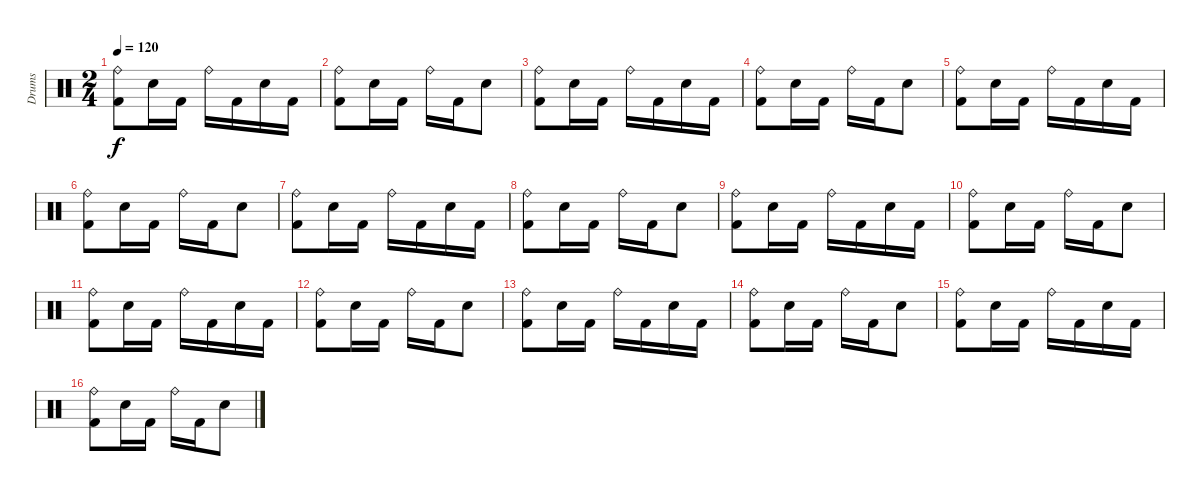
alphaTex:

\track ("Drums" "Drums") {instrument percussion}
\staff {score}
\articulation defaults
\ts (2 4)
\tempo 120
\clef neutral
\ks aminor
("Kick (hit) 2" "Ride (bell)").8{dy f} "Electric Snare (hit)".16 "Kick (hit) 2".16 "Ride (bell)".16 "Kick (hit) 2".16 "Electric Snare (hit)".16 "Kick (hit) 2".16 |
("Kick (hit) 2" "Ride (bell)").8 "Electric Snare (hit)".16 "Kick (hit) 2".16 "Ride (bell)".16 "Kick (hit) 2".16 "Electric Snare (hit)".8 |
("Kick (hit) 2" "Ride (bell)").8 "Electric Snare (hit)".16 "Kick (hit) 2".16 "Ride (bell)".16 "Kick (hit) 2".16 "Electric Snare (hit)".16 "Kick (hit) 2".16 |
("Kick (hit) 2" "Ride (bell)").8 "Electric Snare (hit)".16 "Kick (hit) 2".16 "Ride (bell)".16 "Kick (hit) 2".16 "Electric Snare (hit)".8 |
("Kick (hit) 2" "Ride (bell)").8 "Electric Snare (hit)".16 "Kick (hit) 2".16 "Ride (bell)".16 "Kick (hit) 2".16 "Electric Snare (hit)".16 "Kick (hit) 2".16 |
("Kick (hit) 2" "Ride (bell)").8 "Electric Snare (hit)".16 "Kick (hit) 2".16 "Ride (bell)".16 "Kick (hit) 2".16 "Electric Snare (hit)".8 |
("Kick (hit) 2" "Ride (bell)").8 "Electric Snare (hit)".16 "Kick (hit) 2".16 "Ride (bell)".16 "Kick (hit) 2".16 "Electric Snare (hit)".16 "Kick (hit) 2".16 |
("Kick (hit) 2" "Ride (bell)").8 "Electric Snare (hit)".16 "Kick (hit) 2".16 "Ride (bell)".16 "Kick (hit) 2".16 "Electric Snare (hit)".8 |
("Kick (hit) 2" "Ride (bell)").8 "Electric Snare (hit)".16 "Kick (hit) 2".16 "Ride (bell)".16 "Kick (hit) 2".16 "Electric Snare (hit)".16 "Kick (hit) 2".16 |
("Kick (hit) 2" "Ride (bell)").8 "Electric Snare (hit)".16 "Kick (hit) 2".16 "Ride (bell)".16 "Kick (hit) 2".16 "Electric Snare (hit)".8 |
("Kick (hit) 2" "Ride (bell)").8 "Electric Snare (hit)".16 "Kick (hit) 2".16 "Ride (bell)".16 "Kick (hit) 2".16 "Electric Snare (hit)".16 "Kick (hit) 2".16 |
("Kick (hit) 2" "Ride (bell)").8 "Electric Snare (hit)".16 "Kick (hit) 2".16 "Ride (bell)".16 "Kick (hit) 2".16 "Electric Snare (hit)".8 |
("Kick (hit) 2" "Ride (bell)").8 "Electric Snare (hit)".16 "Kick (hit) 2".16 "Ride (bell)".16 "Kick (hit) 2".16 "Electric Snare (hit)".16 "Kick (hit) 2".16 |
("Kick (hit) 2" "Ride (bell)").8 "Electric Snare (hit)".16 "Kick (hit) 2".16 "Ride (bell)".16 "Kick (hit) 2".16 "Electric Snare (hit)".8 |
("Kick (hit) 2" "Ride (bell)").8 "Electric Snare (hit)".16 "Kick (hit) 2".16 "Ride (bell)".16 "Kick (hit) 2".16 "Electric Snare (hit)".16 "Kick (hit) 2".16 |
("Kick (hit) 2" "Ride (bell)").8 "Electric Snare (hit)".16 "Kick (hit) 2".16 "Ride (bell)".16 "Kick (hit) 2".16 "Electric Snare (hit)".8
